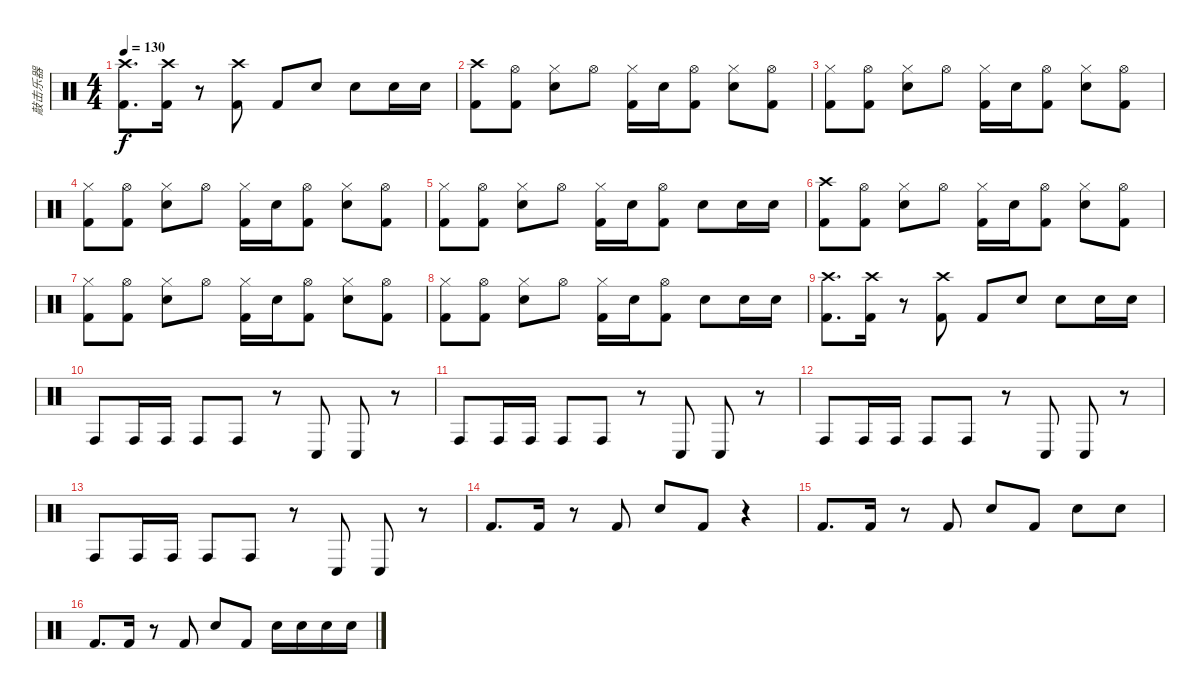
\track ("敲击乐器" "敲击乐器") {instrument percussion}
\staff {score}
\articulation defaults
\ts (4 4)
\tempo 130
\clef neutral
\ks c
("Crash high (hit)" "Kick (hit) 2").8{d dy f} ("Crash high (hit)" "Kick (hit) 2").16 r.8 ("Crash high (hit)" "Kick (hit) 2").8 "Kick (hit) 2".8 "Electric Snare (hit)".8 "Electric Snare (hit)".8 "Electric Snare (hit)".16 "Electric Snare (hit)".16 |
("Crash high (hit)" "Kick (hit) 2").8 ("Hi-Hat (open)" "Kick (hit) 2").8 ("Hi-Hat (closed)" "Electric Snare (hit)").8 "Hi-Hat (open)".8 ("Hi-Hat (closed)" "Kick (hit) 2").16 "Electric Snare (hit)".16 ("Hi-Hat (open)" "Kick (hit) 2").8 ("Hi-Hat (closed)" "Electric Snare (hit)").8 ("Hi-Hat (open)" "Kick (hit) 2").8 |
("Hi-Hat (closed)" "Kick (hit) 2").8 ("Hi-Hat (open)" "Kick (hit) 2").8 ("Hi-Hat (closed)" "Electric Snare (hit)").8 "Hi-Hat (open)".8 ("Hi-Hat (closed)" "Kick (hit) 2").16 "Electric Snare (hit)".16 ("Hi-Hat (open)" "Kick (hit) 2").8 ("Hi-Hat (closed)" "Electric Snare (hit)").8 ("Hi-Hat (open)" "Kick (hit) 2").8 |
("Hi-Hat (closed)" "Kick (hit) 2").8 ("Hi-Hat (open)" "Kick (hit) 2").8 ("Hi-Hat (closed)" "Electric Snare (hit)").8 "Hi-Hat (open)".8 ("Hi-Hat (closed)" "Kick (hit) 2").16 "Electric Snare (hit)".16 ("Hi-Hat (open)" "Kick (hit) 2").8 ("Hi-Hat (closed)" "Electric Snare (hit)").8 ("Hi-Hat (open)" "Kick (hit) 2").8 |
("Hi-Hat (closed)" "Kick (hit) 2").8 ("Hi-Hat (open)" "Kick (hit) 2").8 ("Hi-Hat (closed)" "Electric Snare (hit)").8 "Hi-Hat (open)".8 ("Hi-Hat (closed)" "Kick (hit) 2").16 "Electric Snare (hit)".16 ("Hi-Hat (open)" "Kick (hit) 2").8 "Electric Snare (hit)".8 "Electric Snare (hit)".16 "Electric Snare (hit)".16 |
("Crash high (hit)" "Kick (hit) 2").8 ("Hi-Hat (open)" "Kick (hit) 2").8 ("Hi-Hat (closed)" "Electric Snare (hit)").8 "Hi-Hat (open)".8 ("Hi-Hat (closed)" "Kick (hit) 2").16 "Electric Snare (hit)".16 ("Hi-Hat (open)" "Kick (hit) 2").8 ("Hi-Hat (closed)" "Electric Snare (hit)").8 ("Hi-Hat (open)" "Kick (hit) 2").8 |
("Hi-Hat (closed)" "Kick (hit) 2").8 ("Hi-Hat (open)" "Kick (hit) 2").8 ("Hi-Hat (closed)" "Electric Snare (hit)").8 "Hi-Hat (open)".8 ("Hi-Hat (closed)" "Kick (hit) 2").16 "Electric Snare (hit)".16 ("Hi-Hat (open)" "Kick (hit) 2").8 ("Hi-Hat (closed)" "Electric Snare (hit)").8 ("Hi-Hat (open)" "Kick (hit) 2").8 |
("Hi-Hat (closed)" "Kick (hit) 2").8 ("Hi-Hat (open)" "Kick (hit) 2").8 ("Hi-Hat (closed)" "Electric Snare (hit)").8 "Hi-Hat (open)".8 ("Hi-Hat (closed)" "Kick (hit) 2").16 "Electric Snare (hit)".16 ("Hi-Hat (open)" "Kick (hit) 2").8 "Electric Snare (hit)".8 "Electric Snare (hit)".16 "Electric Snare (hit)".16 |
("Crash high (hit)" "Kick (hit) 2").8{d} ("Crash high (hit)" "Kick (hit) 2").16 r.8 ("Crash high (hit)" "Kick (hit) 2").8 "Kick (hit) 2".8 "Electric Snare (hit)".8 "Electric Snare (hit)".8 "Electric Snare (hit)".16 "Electric Snare (hit)".16 |
"Conga high (hit)".8 "Conga high (hit)".16 "Conga high (hit)".16 "Conga high (hit)".8 "Conga high (hit)".8 r.8 "Conga low (hit)".8 "Conga low (hit)".8 r.8 |
"Conga high (hit)".8 "Conga high (hit)".16 "Conga high (hit)".16 "Conga high (hit)".8 "Conga high (hit)".8 r.8 "Conga low (hit)".8 "Conga low (hit)".8 r.8 |
"Conga high (hit)".8 "Conga high (hit)".16 "Conga high (hit)".16 "Conga high (hit)".8 "Conga high (hit)".8 r.8 "Conga low (hit)".8 "Conga low (hit)".8 r.8 |
"Conga high (hit)".8 "Conga high (hit)".16 "Conga high (hit)".16 "Conga high (hit)".8 "Conga high (hit)".8 r.8 "Conga low (hit)".8 "Conga low (hit)".8 r.8 |
"Kick (hit) 2".8{d} "Kick (hit) 2".16 r.8 "Kick (hit) 2".8 "Electric Snare (hit)".8 "Kick (hit) 2".8 r.4 |
"Kick (hit) 2".8{d} "Kick (hit) 2".16 r.8 "Kick (hit) 2".8 "Electric Snare (hit)".8 "Kick (hit) 2".8 "Electric Snare (hit)".8 "Electric Snare (hit)".8 |
"Kick (hit) 2".8{d} "Kick (hit) 2".16 r.8 "Kick (hit) 2".8 "Electric Snare (hit)".8 "Kick (hit) 2".8 "Electric Snare (hit)".16 "Electric Snare (hit)".16 "Electric Snare (hit)".16 "Electric Snare (hit)".16
